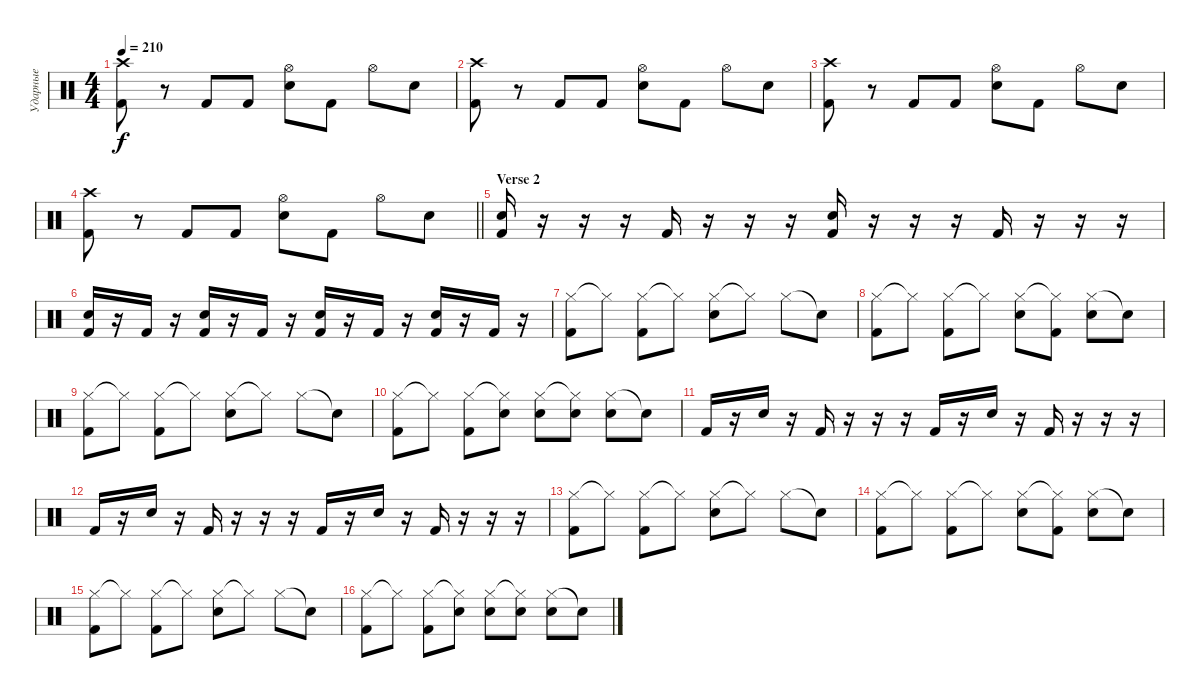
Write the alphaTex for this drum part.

\track ("Ударные" "Ударные") {instrument percussion}
\staff {score}
\articulation defaults
\ts (4 4)
\tempo 210
\clef neutral
\ks c
("Crash high (hit)" "Kick (hit) 2").8{dy f} r.8 "Kick (hit) 2".8 "Kick (hit) 2".8 ("Hi-Hat (open)" "Snare (hit) 2").8 "Kick (hit) 2".8 "Hi-Hat (open)".8 "Snare (hit) 2".8 |
("Crash high (hit)" "Kick (hit) 2").8 r.8 "Kick (hit) 2".8 "Kick (hit) 2".8 ("Hi-Hat (open)" "Snare (hit) 2").8 "Kick (hit) 2".8 "Hi-Hat (open)".8 "Snare (hit) 2".8 |
("Crash high (hit)" "Kick (hit) 2").8 r.8 "Kick (hit) 2".8 "Kick (hit) 2".8 ("Hi-Hat (open)" "Snare (hit) 2").8 "Kick (hit) 2".8 "Hi-Hat (open)".8 "Snare (hit) 2".8 |
\barLineRight lightlight
("Crash high (hit)" "Kick (hit) 2").8 r.8 "Kick (hit) 2".8 "Kick (hit) 2".8 ("Hi-Hat (open)" "Snare (hit) 2").8 "Kick (hit) 2".8 "Hi-Hat (open)".8 "Snare (hit) 2".8 |
\section ("" "Verse 2")
("Snare (hit) 2" "Kick (hit) 2").16 r.16 r.16 r.16 "Kick (hit) 2".16 r.16 r.16 r.16 ("Snare (hit) 2" "Kick (hit) 2").16 r.16 r.16 r.16 "Kick (hit) 2".16 r.16 r.16 r.16 |
("Snare (hit) 2" "Kick (hit) 2").16 r.16 "Kick (hit) 2".16 r.16 ("Snare (hit) 2" "Kick (hit) 2").16 r.16 "Kick (hit) 2".16 r.16 ("Snare (hit) 2" "Kick (hit) 2").16 r.16 "Kick (hit) 2".16 r.16 ("Snare (hit) 2" "Kick (hit) 2").16 r.16 "Kick (hit) 2".16 r.16 |
("Hi-Hat (closed)" "Kick (hit) 2").8 "Hi-Hat (closed)"{t}.8 ("Hi-Hat (closed)" "Kick (hit) 2").8 "Hi-Hat (closed)"{t}.8 ("Hi-Hat (closed)" "Snare (hit) 2").8 "Hi-Hat (closed)"{t}.8 "Hi-Hat (closed)".8 "Snare (hit)"{t}.8 |
("Hi-Hat (closed)" "Kick (hit) 2").8 "Hi-Hat (closed)"{t}.8 ("Hi-Hat (closed)" "Kick (hit) 2").8 "Hi-Hat (closed)"{t}.8 ("Hi-Hat (closed)" "Snare (hit) 2").8 ("Hi-Hat (closed)"{t} "Kick (hit) 2").8 ("Hi-Hat (closed)" "Snare (hit) 2").8 "Snare (hit)"{t}.8 |
("Hi-Hat (closed)" "Kick (hit) 2").8 "Hi-Hat (closed)"{t}.8 ("Hi-Hat (closed)" "Kick (hit) 2").8 "Hi-Hat (closed)"{t}.8 ("Hi-Hat (closed)" "Snare (hit) 2").8 "Hi-Hat (closed)"{t}.8 "Hi-Hat (closed)".8 "Snare (hit)"{t}.8 |
("Hi-Hat (closed)" "Kick (hit) 2").8 "Hi-Hat (closed)"{t}.8 ("Hi-Hat (closed)" "Kick (hit) 2").8 ("Hi-Hat (closed)"{t} "Snare (hit) 2").8 ("Hi-Hat (closed)" "Snare (hit) 2").8 ("Hi-Hat (closed)"{t} "Snare (hit) 2").8 ("Hi-Hat (closed)" "Snare (hit) 2").8 "Snare (hit)"{t}.8 |
"Kick (hit) 2".16 r.16 "Snare (hit) 2".16 r.16 "Kick (hit) 2".16 r.16 r.16 r.16 "Kick (hit) 2".16 r.16 "Snare (hit) 2".16 r.16 "Kick (hit) 2".16 r.16 r.16 r.16 |
"Kick (hit) 2".16 r.16 "Snare (hit) 2".16 r.16 "Kick (hit) 2".16 r.16 r.16 r.16 "Kick (hit) 2".16 r.16 "Snare (hit) 2".16 r.16 "Kick (hit) 2".16 r.16 r.16 r.16 |
("Hi-Hat (closed)" "Kick (hit) 2").8 "Hi-Hat (closed)"{t}.8 ("Hi-Hat (closed)" "Kick (hit) 2").8 "Hi-Hat (closed)"{t}.8 ("Hi-Hat (closed)" "Snare (hit) 2").8 "Hi-Hat (closed)"{t}.8 "Hi-Hat (closed)".8 "Snare (hit)"{t}.8 |
("Hi-Hat (closed)" "Kick (hit) 2").8 "Hi-Hat (closed)"{t}.8 ("Hi-Hat (closed)" "Kick (hit) 2").8 "Hi-Hat (closed)"{t}.8 ("Hi-Hat (closed)" "Snare (hit) 2").8 ("Hi-Hat (closed)"{t} "Kick (hit) 2").8 ("Hi-Hat (closed)" "Snare (hit) 2").8 "Snare (hit)"{t}.8 |
("Hi-Hat (closed)" "Kick (hit) 2").8 "Hi-Hat (closed)"{t}.8 ("Hi-Hat (closed)" "Kick (hit) 2").8 "Hi-Hat (closed)"{t}.8 ("Hi-Hat (closed)" "Snare (hit) 2").8 "Hi-Hat (closed)"{t}.8 "Hi-Hat (closed)".8 "Snare (hit)"{t}.8 |
("Hi-Hat (closed)" "Kick (hit) 2").8 "Hi-Hat (closed)"{t}.8 ("Hi-Hat (closed)" "Kick (hit) 2").8 ("Hi-Hat (closed)"{t} "Snare (hit) 2").8 ("Hi-Hat (closed)" "Snare (hit) 2").8 ("Hi-Hat (closed)"{t} "Snare (hit) 2").8 ("Hi-Hat (closed)" "Snare (hit) 2").8 "Snare (hit)"{t}.8
